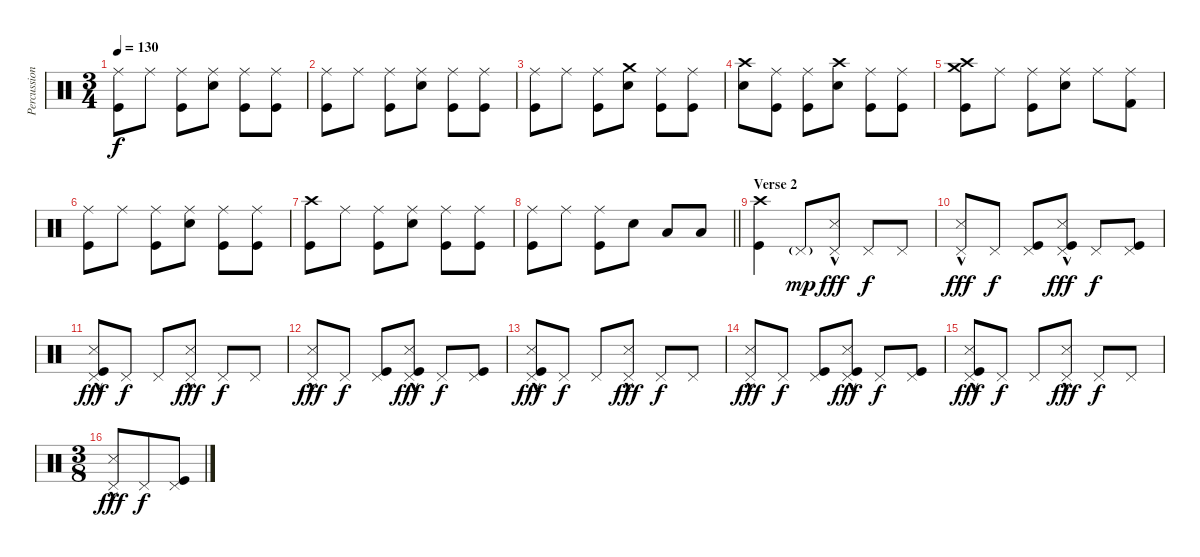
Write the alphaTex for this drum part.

\track ("Percussion" "Percussion") {instrument percussion}
\staff {score}
\articulation defaults
\ts (3 4)
\tempo 130
\clef neutral
\ks c
("Ride (middle)" "Kick (hit)").8{dy f} "Ride (middle)".8 ("Ride (middle)" "Kick (hit)").8 ("Ride (middle)" "Snare (hit) 2").8 ("Ride (middle)" "Kick (hit)").8 ("Ride (middle)" "Kick (hit)").8 |
("Ride (middle)" "Kick (hit)").8 "Ride (middle)".8 ("Ride (middle)" "Kick (hit)").8 ("Ride (middle)" "Snare (hit) 2").8 ("Ride (middle)" "Kick (hit)").8 ("Ride (middle)" "Kick (hit)").8 |
("Ride (middle)" "Kick (hit)").8 "Ride (middle)".8 ("Ride (middle)" "Kick (hit)").8 ("Crash medium (hit)" "Snare (hit) 2").8 ("Ride (middle)" "Kick (hit)").8 ("Ride (middle)" "Kick (hit)").8 |
("Crash high (hit)" "Snare (hit) 2").8 ("Ride (middle)" "Kick (hit)").8 ("Ride (middle)" "Kick (hit)").8 ("Crash high (hit)" "Snare (hit) 2").8 ("Ride (middle)" "Kick (hit)").8 ("Ride (middle)" "Kick (hit)").8 |
("Crash medium (hit)" "Crash high (hit)" "Kick (hit)").8 "Ride (middle)".8 ("Ride (middle)" "Kick (hit)").8 ("Ride (middle)" "Snare (hit) 2").8 "Ride (middle)".8 ("Ride (middle)" "Kick (hit) 2").8 |
("Ride (middle)" "Kick (hit)").8 "Ride (middle)".8 ("Ride (middle)" "Kick (hit)").8 ("Ride (middle)" "Snare (hit) 2").8 ("Ride (middle)" "Kick (hit)").8 ("Ride (middle)" "Kick (hit)").8 |
("Crash high (hit)" "Kick (hit)").8 "Ride (middle)".8 ("Ride (middle)" "Kick (hit)").8 ("Ride (middle)" "Snare (hit) 2").8 ("Ride (middle)" "Kick (hit)").8 ("Ride (middle)" "Kick (hit)").8 |
\barLineRight lightlight
("Ride (middle)" "Kick (hit)").8 "Ride (middle)".8 ("Ride (middle)" "Kick (hit)").8 "Snare (hit) 2".8 "Low Tom (hit)".8 "Low Floor Tom (hit)".8 |
\section ("" "Verse 2")
("Crash high (hit)" "Kick (hit)").4{volume 10} "Pedal Hi-Hat (hit)"{g}.8{dy mp} ("Pedal Hi-Hat (hit)" "Snare (side stick) 3"{hac}).8{dy fff} "Pedal Hi-Hat (hit)".8{dy f} "Pedal Hi-Hat (hit)".8 |
("Pedal Hi-Hat (hit)" "Snare (side stick) 3"{hac}).8{dy fff} "Pedal Hi-Hat (hit)".8{dy f} ("Pedal Hi-Hat (hit)" "Kick (hit)").8 ("Pedal Hi-Hat (hit)" "Snare (side stick) 3"{hac} "Kick (hit)").8{dy fff} "Pedal Hi-Hat (hit)".8{dy f} ("Pedal Hi-Hat (hit)" "Kick (hit)").8 |
("Pedal Hi-Hat (hit)" "Snare (side stick) 3"{hac} "Kick (hit)").8{dy fff} "Pedal Hi-Hat (hit)".8{dy f} "Pedal Hi-Hat (hit)".8 ("Pedal Hi-Hat (hit)" "Snare (side stick) 3"{hac}).8{dy fff} "Pedal Hi-Hat (hit)".8{dy f} "Pedal Hi-Hat (hit)".8 |
("Pedal Hi-Hat (hit)" "Snare (side stick) 3"{hac}).8{dy fff} "Pedal Hi-Hat (hit)".8{dy f} ("Pedal Hi-Hat (hit)" "Kick (hit)").8 ("Pedal Hi-Hat (hit)" "Snare (side stick) 3"{hac} "Kick (hit)").8{dy fff} "Pedal Hi-Hat (hit)".8{dy f} ("Pedal Hi-Hat (hit)" "Kick (hit)").8 |
("Pedal Hi-Hat (hit)" "Snare (side stick) 3"{hac} "Kick (hit)").8{dy fff} "Pedal Hi-Hat (hit)".8{dy f} "Pedal Hi-Hat (hit)".8 ("Pedal Hi-Hat (hit)" "Snare (side stick) 3"{hac}).8{dy fff} "Pedal Hi-Hat (hit)".8{dy f} "Pedal Hi-Hat (hit)".8 |
("Pedal Hi-Hat (hit)" "Snare (side stick) 3"{hac}).8{dy fff} "Pedal Hi-Hat (hit)".8{dy f} ("Pedal Hi-Hat (hit)" "Kick (hit)").8 ("Pedal Hi-Hat (hit)" "Snare (side stick) 3"{hac} "Kick (hit)").8{dy fff} "Pedal Hi-Hat (hit)".8{dy f} ("Pedal Hi-Hat (hit)" "Kick (hit)").8 |
("Pedal Hi-Hat (hit)" "Snare (side stick) 3"{hac} "Kick (hit)").8{dy fff} "Pedal Hi-Hat (hit)".8{dy f} "Pedal Hi-Hat (hit)".8 ("Pedal Hi-Hat (hit)" "Snare (side stick) 3"{hac}).8{dy fff} "Pedal Hi-Hat (hit)".8{dy f} "Pedal Hi-Hat (hit)".8 |
\ts (3 8)
("Pedal Hi-Hat (hit)" "Snare (side stick) 3"{hac}).8{dy fff} "Pedal Hi-Hat (hit)".8{dy f} ("Pedal Hi-Hat (hit)" "Kick (hit)").8
